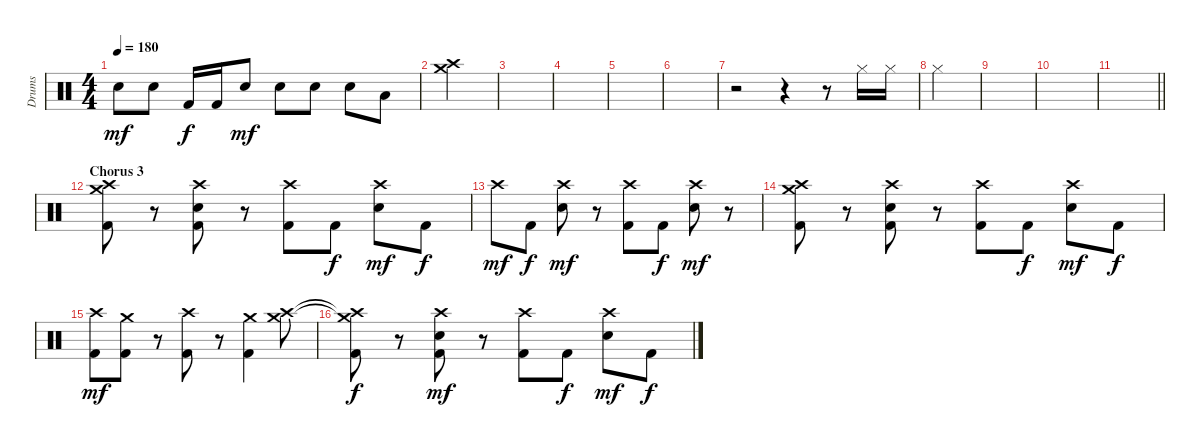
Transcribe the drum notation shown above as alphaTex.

\track ("Drums" "Drums") {instrument percussion}
\staff {score}
\articulation defaults
\ts (4 4)
\tempo 180
\clef neutral
\ks c "Electric Snare (hit)".8{dy mf} "Electric Snare (hit)".8 "Kick (hit) 2".16{dy f} "Kick (hit) 2".16 "Electric Snare (hit)".8{dy mf} "Electric Snare (hit)".8 "Electric Snare (hit)".8 "Electric Snare (hit)".8 "Low Tom (hit)".8
|
("Crash high (hit)" "Crash medium (hit)").4 |
|
|
|
|
r.2 r.4 r.8 "Hi-Hat (closed)".16 "Hi-Hat (closed)".16 |
"Hi-Hat (closed)".4 |
|
|
\barLineRight lightlight
|
\section ("" "Chorus 3")
("Crash high (hit)" "Crash medium (hit)" "Kick (hit) 2").8 r.8 ("Crash high (hit)" "Electric Snare (hit)" "Kick (hit) 2").8 r.8 ("Crash high (hit)" "Kick (hit) 2").8 "Kick (hit) 2".8{dy f} ("Crash high (hit)" "Electric Snare (hit)").8{dy mf} "Kick (hit) 2".8{dy f} |
"Crash high (hit)".8{dy mf} "Kick (hit) 2".8{dy f} ("Crash high (hit)" "Electric Snare (hit)").8{dy mf} r.8 ("Crash high (hit)" "Kick (hit) 2").8 "Kick (hit) 2".8{dy f} ("Crash high (hit)" "Electric Snare (hit)").8{dy mf} r.8 |
("Crash high (hit)" "Crash medium (hit)" "Kick (hit) 2").8 r.8 ("Crash high (hit)" "Electric Snare (hit)" "Kick (hit) 2").8 r.8 ("Crash high (hit)" "Kick (hit) 2").8 "Kick (hit) 2".8{dy f} ("Crash high (hit)" "Electric Snare (hit)").8{dy mf} "Kick (hit) 2".8{dy f} |
("Crash high (hit)" "Kick (hit) 2").8{dy mf} ("Crash medium (hit)" "Kick (hit) 2").8 r.8 ("Crash high (hit)" "Kick (hit) 2").8 r.8 ("Crash medium (hit)" "Kick (hit) 2").4 ("Crash high (hit)" "Crash medium (hit)").8 |
("Crash high (hit)"{t} "Crash medium (hit)"{t} "Kick (hit) 2").8{dy f} r.8 ("Crash high (hit)" "Electric Snare (hit)" "Kick (hit) 2").8{dy mf} r.8 ("Crash high (hit)" "Kick (hit) 2").8 "Kick (hit) 2".8{dy f} ("Crash high (hit)" "Electric Snare (hit)").8{dy mf} "Kick (hit) 2".8{dy f}
